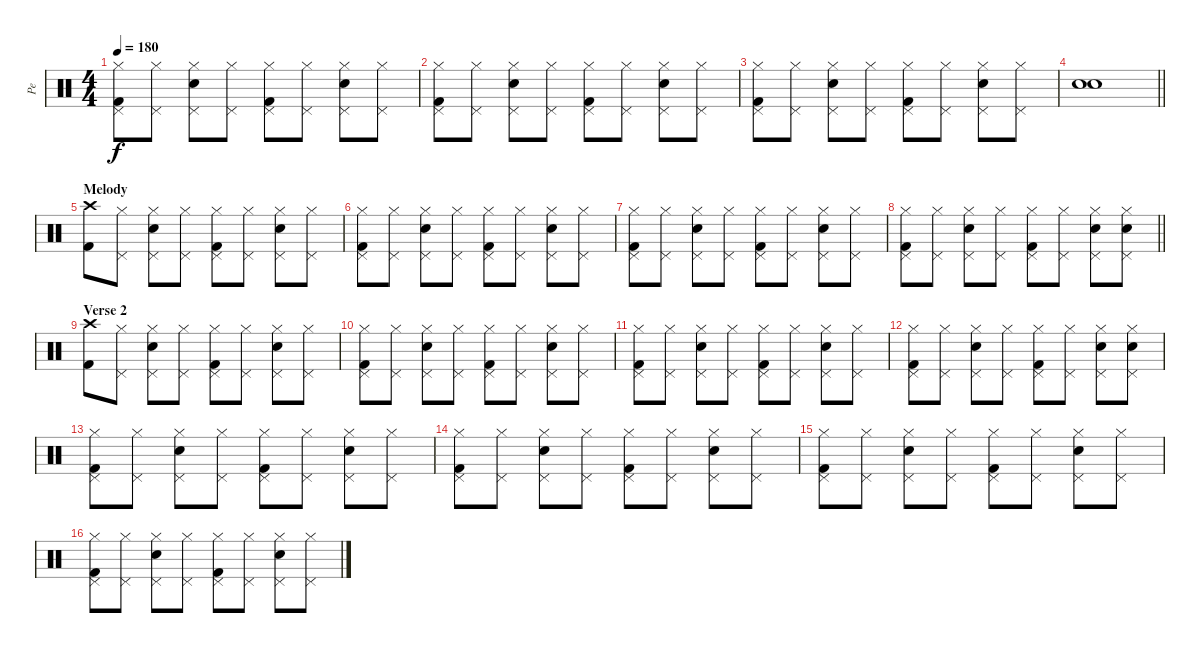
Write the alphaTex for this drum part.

\track ("Pe" "Pe") {instrument percussion}
\staff {score}
\articulation defaults
\ts (4 4)
\tempo 180
\clef neutral
\ks c
("Kick (hit) 2" "Hi-Hat (closed)" "Pedal Hi-Hat (hit)").8{dy f} ("Hi-Hat (closed)" "Pedal Hi-Hat (hit)").8 ("Electric Snare (hit)" "Hi-Hat (closed)" "Pedal Hi-Hat (hit)").8 ("Hi-Hat (closed)" "Pedal Hi-Hat (hit)").8 ("Kick (hit) 2" "Hi-Hat (closed)" "Pedal Hi-Hat (hit)").8 ("Hi-Hat (closed)" "Pedal Hi-Hat (hit)").8 ("Electric Snare (hit)" "Hi-Hat (closed)" "Pedal Hi-Hat (hit)").8 ("Hi-Hat (closed)" "Pedal Hi-Hat (hit)").8 |
("Kick (hit) 2" "Hi-Hat (closed)" "Pedal Hi-Hat (hit)").8 ("Hi-Hat (closed)" "Pedal Hi-Hat (hit)").8 ("Electric Snare (hit)" "Hi-Hat (closed)" "Pedal Hi-Hat (hit)").8 ("Hi-Hat (closed)" "Pedal Hi-Hat (hit)").8 ("Kick (hit) 2" "Hi-Hat (closed)" "Pedal Hi-Hat (hit)").8 ("Hi-Hat (closed)" "Pedal Hi-Hat (hit)").8 ("Electric Snare (hit)" "Hi-Hat (closed)" "Pedal Hi-Hat (hit)").8 ("Hi-Hat (closed)" "Pedal Hi-Hat (hit)").8 |
("Kick (hit) 2" "Hi-Hat (closed)" "Pedal Hi-Hat (hit)").8 ("Hi-Hat (closed)" "Pedal Hi-Hat (hit)").8 ("Electric Snare (hit)" "Hi-Hat (closed)" "Pedal Hi-Hat (hit)").8 ("Hi-Hat (closed)" "Pedal Hi-Hat (hit)").8 ("Kick (hit) 2" "Hi-Hat (closed)" "Pedal Hi-Hat (hit)").8 ("Hi-Hat (closed)" "Pedal Hi-Hat (hit)").8 ("Electric Snare (hit)" "Hi-Hat (closed)" "Pedal Hi-Hat (hit)").8 ("Hi-Hat (closed)" "Pedal Hi-Hat (hit)").8 |
\barLineRight lightlight
("Electric Snare (hit)" "Electric Snare (hit)").1 |
\section ("" "Melody")
("Kick (hit) 2" "Crash high (hit)").8 ("Hi-Hat (closed)" "Pedal Hi-Hat (hit)").8 ("Electric Snare (hit)" "Hi-Hat (closed)" "Pedal Hi-Hat (hit)").8 ("Hi-Hat (closed)" "Pedal Hi-Hat (hit)").8 ("Kick (hit) 2" "Hi-Hat (closed)" "Pedal Hi-Hat (hit)").8 ("Hi-Hat (closed)" "Pedal Hi-Hat (hit)").8 ("Electric Snare (hit)" "Hi-Hat (closed)" "Pedal Hi-Hat (hit)").8 ("Hi-Hat (closed)" "Pedal Hi-Hat (hit)").8 |
("Kick (hit) 2" "Hi-Hat (closed)" "Pedal Hi-Hat (hit)").8 ("Hi-Hat (closed)" "Pedal Hi-Hat (hit)").8 ("Electric Snare (hit)" "Hi-Hat (closed)" "Pedal Hi-Hat (hit)").8 ("Hi-Hat (closed)" "Pedal Hi-Hat (hit)").8 ("Kick (hit) 2" "Hi-Hat (closed)" "Pedal Hi-Hat (hit)").8 ("Hi-Hat (closed)" "Pedal Hi-Hat (hit)").8 ("Electric Snare (hit)" "Hi-Hat (closed)" "Pedal Hi-Hat (hit)").8 ("Hi-Hat (closed)" "Pedal Hi-Hat (hit)").8 |
("Kick (hit) 2" "Hi-Hat (closed)" "Pedal Hi-Hat (hit)").8 ("Hi-Hat (closed)" "Pedal Hi-Hat (hit)").8 ("Electric Snare (hit)" "Hi-Hat (closed)" "Pedal Hi-Hat (hit)").8 ("Hi-Hat (closed)" "Pedal Hi-Hat (hit)").8 ("Kick (hit) 2" "Hi-Hat (closed)" "Pedal Hi-Hat (hit)").8 ("Hi-Hat (closed)" "Pedal Hi-Hat (hit)").8 ("Electric Snare (hit)" "Hi-Hat (closed)" "Pedal Hi-Hat (hit)").8 ("Hi-Hat (closed)" "Pedal Hi-Hat (hit)").8 |
\barLineRight lightlight
("Kick (hit) 2" "Hi-Hat (closed)" "Pedal Hi-Hat (hit)").8 ("Hi-Hat (closed)" "Pedal Hi-Hat (hit)").8 ("Electric Snare (hit)" "Hi-Hat (closed)" "Pedal Hi-Hat (hit)").8 ("Hi-Hat (closed)" "Pedal Hi-Hat (hit)").8 ("Kick (hit) 2" "Hi-Hat (closed)" "Pedal Hi-Hat (hit)").8 ("Hi-Hat (closed)" "Pedal Hi-Hat (hit)").8 ("Electric Snare (hit)" "Hi-Hat (closed)" "Pedal Hi-Hat (hit)").8 ("Electric Snare (hit)" "Hi-Hat (closed)" "Pedal Hi-Hat (hit)").8 |
\section ("" "Verse 2")
("Kick (hit) 2" "Crash high (hit)").8 ("Hi-Hat (closed)" "Pedal Hi-Hat (hit)").8 ("Electric Snare (hit)" "Hi-Hat (closed)" "Pedal Hi-Hat (hit)").8 ("Hi-Hat (closed)" "Pedal Hi-Hat (hit)").8 ("Kick (hit) 2" "Hi-Hat (closed)" "Pedal Hi-Hat (hit)").8 ("Hi-Hat (closed)" "Pedal Hi-Hat (hit)").8 ("Electric Snare (hit)" "Hi-Hat (closed)" "Pedal Hi-Hat (hit)").8 ("Hi-Hat (closed)" "Pedal Hi-Hat (hit)").8 |
("Kick (hit) 2" "Hi-Hat (closed)" "Pedal Hi-Hat (hit)").8 ("Hi-Hat (closed)" "Pedal Hi-Hat (hit)").8 ("Electric Snare (hit)" "Hi-Hat (closed)" "Pedal Hi-Hat (hit)").8 ("Hi-Hat (closed)" "Pedal Hi-Hat (hit)").8 ("Kick (hit) 2" "Hi-Hat (closed)" "Pedal Hi-Hat (hit)").8 ("Hi-Hat (closed)" "Pedal Hi-Hat (hit)").8 ("Electric Snare (hit)" "Hi-Hat (closed)" "Pedal Hi-Hat (hit)").8 ("Hi-Hat (closed)" "Pedal Hi-Hat (hit)").8 |
("Kick (hit) 2" "Hi-Hat (closed)" "Pedal Hi-Hat (hit)").8 ("Hi-Hat (closed)" "Pedal Hi-Hat (hit)").8 ("Electric Snare (hit)" "Hi-Hat (closed)" "Pedal Hi-Hat (hit)").8 ("Hi-Hat (closed)" "Pedal Hi-Hat (hit)").8 ("Kick (hit) 2" "Hi-Hat (closed)" "Pedal Hi-Hat (hit)").8 ("Hi-Hat (closed)" "Pedal Hi-Hat (hit)").8 ("Electric Snare (hit)" "Hi-Hat (closed)" "Pedal Hi-Hat (hit)").8 ("Hi-Hat (closed)" "Pedal Hi-Hat (hit)").8 |
("Kick (hit) 2" "Hi-Hat (closed)" "Pedal Hi-Hat (hit)").8 ("Hi-Hat (closed)" "Pedal Hi-Hat (hit)").8 ("Electric Snare (hit)" "Hi-Hat (closed)" "Pedal Hi-Hat (hit)").8 ("Hi-Hat (closed)" "Pedal Hi-Hat (hit)").8 ("Kick (hit) 2" "Hi-Hat (closed)" "Pedal Hi-Hat (hit)").8 ("Hi-Hat (closed)" "Pedal Hi-Hat (hit)").8 ("Electric Snare (hit)" "Hi-Hat (closed)" "Pedal Hi-Hat (hit)").8 ("Electric Snare (hit)" "Hi-Hat (closed)" "Pedal Hi-Hat (hit)").8 |
("Kick (hit) 2" "Hi-Hat (closed)" "Pedal Hi-Hat (hit)").8 ("Hi-Hat (closed)" "Pedal Hi-Hat (hit)").8 ("Electric Snare (hit)" "Hi-Hat (closed)" "Pedal Hi-Hat (hit)").8 ("Hi-Hat (closed)" "Pedal Hi-Hat (hit)").8 ("Kick (hit) 2" "Hi-Hat (closed)" "Pedal Hi-Hat (hit)").8 ("Hi-Hat (closed)" "Pedal Hi-Hat (hit)").8 ("Electric Snare (hit)" "Hi-Hat (closed)" "Pedal Hi-Hat (hit)").8 ("Hi-Hat (closed)" "Pedal Hi-Hat (hit)").8 |
("Kick (hit) 2" "Hi-Hat (closed)" "Pedal Hi-Hat (hit)").8 ("Hi-Hat (closed)" "Pedal Hi-Hat (hit)").8 ("Electric Snare (hit)" "Hi-Hat (closed)" "Pedal Hi-Hat (hit)").8 ("Hi-Hat (closed)" "Pedal Hi-Hat (hit)").8 ("Kick (hit) 2" "Hi-Hat (closed)" "Pedal Hi-Hat (hit)").8 ("Hi-Hat (closed)" "Pedal Hi-Hat (hit)").8 ("Electric Snare (hit)" "Hi-Hat (closed)" "Pedal Hi-Hat (hit)").8 ("Hi-Hat (closed)" "Pedal Hi-Hat (hit)").8 |
("Kick (hit) 2" "Hi-Hat (closed)" "Pedal Hi-Hat (hit)").8 ("Hi-Hat (closed)" "Pedal Hi-Hat (hit)").8 ("Electric Snare (hit)" "Hi-Hat (closed)" "Pedal Hi-Hat (hit)").8 ("Hi-Hat (closed)" "Pedal Hi-Hat (hit)").8 ("Kick (hit) 2" "Hi-Hat (closed)" "Pedal Hi-Hat (hit)").8 ("Hi-Hat (closed)" "Pedal Hi-Hat (hit)").8 ("Electric Snare (hit)" "Hi-Hat (closed)" "Pedal Hi-Hat (hit)").8 ("Hi-Hat (closed)" "Pedal Hi-Hat (hit)").8 |
("Kick (hit) 2" "Hi-Hat (closed)" "Pedal Hi-Hat (hit)").8 ("Hi-Hat (closed)" "Pedal Hi-Hat (hit)").8 ("Electric Snare (hit)" "Hi-Hat (closed)" "Pedal Hi-Hat (hit)").8 ("Hi-Hat (closed)" "Pedal Hi-Hat (hit)").8 ("Kick (hit) 2" "Hi-Hat (closed)" "Pedal Hi-Hat (hit)").8 ("Hi-Hat (closed)" "Pedal Hi-Hat (hit)").8 ("Electric Snare (hit)" "Hi-Hat (closed)" "Pedal Hi-Hat (hit)").8 ("Hi-Hat (closed)" "Pedal Hi-Hat (hit)").8
